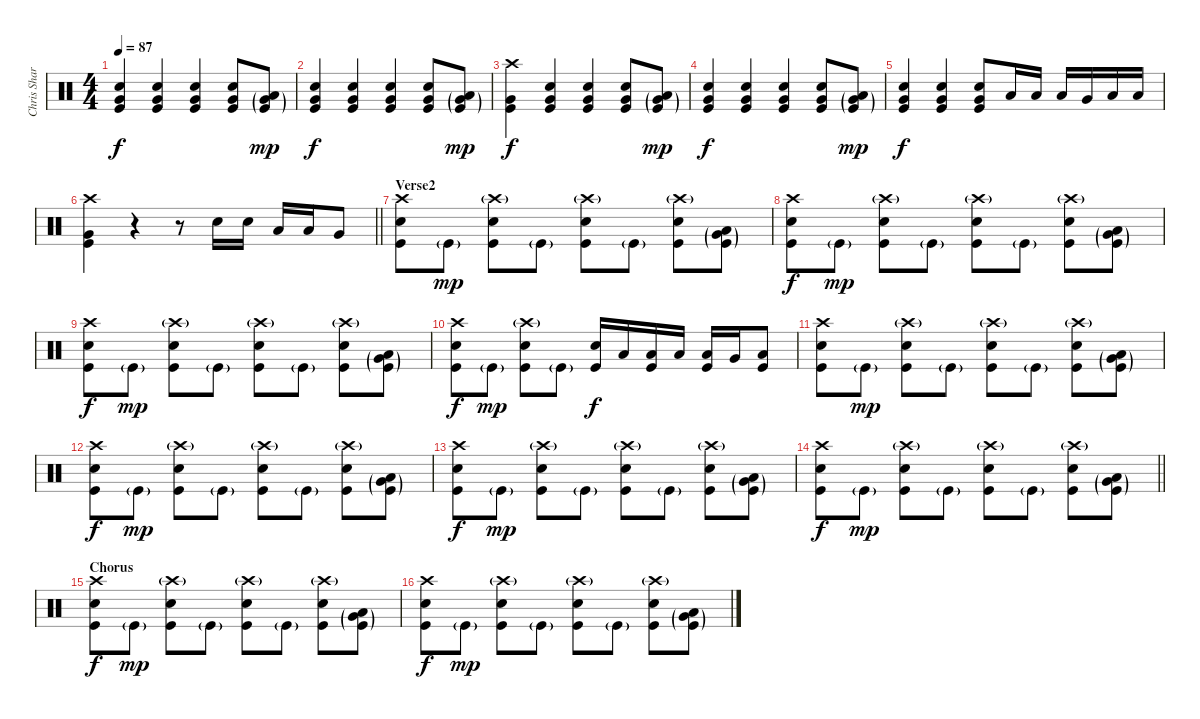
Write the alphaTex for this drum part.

\track ("Chris Sharrock" "Chris Shar") {instrument percussion}
\staff {score}
\articulation defaults
\ts (4 4)
\tempo 87
\clef neutral
\ks c
("Kick (hit)" "Very Low Tom (hit)" "Snare (hit) 2").4{dy f} ("Kick (hit)" "Very Low Tom (hit)" "Snare (hit) 2").4 ("Kick (hit)" "Very Low Tom (hit)" "Snare (hit) 2").4 ("Kick (hit)" "Very Low Tom (hit)" "Snare (hit) 2").8 ("Low Tom (hit)"{g} "Very Low Tom (hit)"{g} "Kick (hit)"{g}).8{dy mp} |
("Kick (hit)" "Very Low Tom (hit)" "Snare (hit) 2").4{dy f} ("Kick (hit)" "Very Low Tom (hit)" "Snare (hit) 2").4 ("Kick (hit)" "Very Low Tom (hit)" "Snare (hit) 2").4 ("Kick (hit)" "Very Low Tom (hit)" "Snare (hit) 2").8 ("Low Tom (hit)"{g} "Very Low Tom (hit)"{g} "Kick (hit)"{g}).8{dy mp} |
("Kick (hit)" "Crash high (hit)" "Very Low Tom (hit)").4{dy f} ("Kick (hit)" "Very Low Tom (hit)" "Snare (hit) 2").4 ("Kick (hit)" "Very Low Tom (hit)" "Snare (hit) 2").4 ("Kick (hit)" "Very Low Tom (hit)" "Snare (hit) 2").8 ("Low Tom (hit)"{g} "Very Low Tom (hit)"{g} "Kick (hit)"{g}).8{dy mp} |
("Kick (hit)" "Very Low Tom (hit)" "Snare (hit) 2").4{dy f} ("Kick (hit)" "Very Low Tom (hit)" "Snare (hit) 2").4 ("Kick (hit)" "Very Low Tom (hit)" "Snare (hit) 2").4 ("Kick (hit)" "Very Low Tom (hit)" "Snare (hit) 2").8 ("Low Tom (hit)"{g} "Very Low Tom (hit)"{g} "Kick (hit)"{g}).8{dy mp} |
("Kick (hit)" "Very Low Tom (hit)" "Snare (hit) 2").4{dy f} ("Kick (hit)" "Very Low Tom (hit)" "Snare (hit) 2").4 ("Kick (hit)" "Very Low Tom (hit)" "Snare (hit) 2").8 "Low Tom (hit)".16 "Low Tom (hit)".16 "Low Tom (hit)".16 "Very Low Tom (hit)".16 "Low Floor Tom (hit)".16 "Low Floor Tom (hit)".16 |
\barLineRight lightlight
("Kick (hit)" "Crash high (hit)" "Very Low Tom (hit)").4 r.4 r.8 "Snare (hit) 2".16 "Snare (hit) 2".16 "Low Tom (hit)".16 "Low Tom (hit)".16 "Very Low Tom (hit)".8 |
\section ("" "Verse2")
("Kick (hit)" "Snare (hit) 2" "Crash high (hit)").8 "Kick (hit)"{g}.8{dy mp} ("Kick (hit)" "Snare (hit) 2" "Crash high (hit)"{g}).8 "Kick (hit)"{g}.8 ("Kick (hit)" "Snare (hit) 2" "Crash high (hit)"{g}).8 "Kick (hit)"{g}.8 ("Kick (hit)" "Snare (hit) 2" "Crash high (hit)"{g}).8 ("Low Tom (hit)"{g} "Very Low Tom (hit)"{g} "Kick (hit)"{g}).8 |
("Kick (hit)" "Snare (hit) 2" "Crash high (hit)").8{dy f} "Kick (hit)"{g}.8{dy mp} ("Kick (hit)" "Snare (hit) 2" "Crash high (hit)"{g}).8 "Kick (hit)"{g}.8 ("Kick (hit)" "Snare (hit) 2" "Crash high (hit)"{g}).8 "Kick (hit)"{g}.8 ("Kick (hit)" "Snare (hit) 2" "Crash high (hit)"{g}).8 ("Low Tom (hit)"{g} "Very Low Tom (hit)"{g} "Kick (hit)"{g}).8 |
("Kick (hit)" "Snare (hit) 2" "Crash high (hit)").8{dy f} "Kick (hit)"{g}.8{dy mp} ("Kick (hit)" "Snare (hit) 2" "Crash high (hit)"{g}).8 "Kick (hit)"{g}.8 ("Kick (hit)" "Snare (hit) 2" "Crash high (hit)"{g}).8 "Kick (hit)"{g}.8 ("Kick (hit)" "Snare (hit) 2" "Crash high (hit)"{g}).8 ("Low Tom (hit)"{g} "Very Low Tom (hit)"{g} "Kick (hit)"{g}).8 |
("Kick (hit)" "Snare (hit) 2" "Crash high (hit)").8{dy f} "Kick (hit)"{g}.8{dy mp} ("Kick (hit)" "Snare (hit) 2" "Crash high (hit)"{g}).8 "Kick (hit)"{g}.8 ("Snare (hit) 2" "Kick (hit)").16{dy f} "Low Tom (hit)".16 ("Low Tom (hit)" "Kick (hit)").16 "Low Tom (hit)".16 ("Low Tom (hit)" "Kick (hit)").16 "Very Low Tom (hit)".16 ("Low Floor Tom (hit)" "Kick (hit)").8 |
("Kick (hit)" "Snare (hit) 2" "Crash high (hit)").8 "Kick (hit)"{g}.8{dy mp} ("Kick (hit)" "Snare (hit) 2" "Crash high (hit)"{g}).8 "Kick (hit)"{g}.8 ("Kick (hit)" "Snare (hit) 2" "Crash high (hit)"{g}).8 "Kick (hit)"{g}.8 ("Kick (hit)" "Snare (hit) 2" "Crash high (hit)"{g}).8 ("Low Tom (hit)"{g} "Very Low Tom (hit)"{g} "Kick (hit)"{g}).8 |
("Kick (hit)" "Snare (hit) 2" "Crash high (hit)").8{dy f} "Kick (hit)"{g}.8{dy mp} ("Kick (hit)" "Snare (hit) 2" "Crash high (hit)"{g}).8 "Kick (hit)"{g}.8 ("Kick (hit)" "Snare (hit) 2" "Crash high (hit)"{g}).8 "Kick (hit)"{g}.8 ("Kick (hit)" "Snare (hit) 2" "Crash high (hit)"{g}).8 ("Low Tom (hit)"{g} "Very Low Tom (hit)"{g} "Kick (hit)"{g}).8 |
("Kick (hit)" "Snare (hit) 2" "Crash high (hit)").8{dy f} "Kick (hit)"{g}.8{dy mp} ("Kick (hit)" "Snare (hit) 2" "Crash high (hit)"{g}).8 "Kick (hit)"{g}.8 ("Kick (hit)" "Snare (hit) 2" "Crash high (hit)"{g}).8 "Kick (hit)"{g}.8 ("Kick (hit)" "Snare (hit) 2" "Crash high (hit)"{g}).8 ("Low Tom (hit)"{g} "Very Low Tom (hit)"{g} "Kick (hit)"{g}).8 |
\barLineRight lightlight
("Kick (hit)" "Snare (hit) 2" "Crash high (hit)").8{dy f} "Kick (hit)"{g}.8{dy mp} ("Kick (hit)" "Snare (hit) 2" "Crash high (hit)"{g}).8 "Kick (hit)"{g}.8 ("Kick (hit)" "Snare (hit) 2" "Crash high (hit)"{g}).8 "Kick (hit)"{g}.8 ("Kick (hit)" "Snare (hit) 2" "Crash high (hit)"{g}).8 ("Low Tom (hit)"{g} "Very Low Tom (hit)"{g} "Kick (hit)"{g}).8 |
\section ("" "Chorus")
("Kick (hit)" "Snare (hit) 2" "Crash high (hit)").8{dy f} "Kick (hit)"{g}.8{dy mp} ("Kick (hit)" "Snare (hit) 2" "Crash high (hit)"{g}).8 "Kick (hit)"{g}.8 ("Kick (hit)" "Snare (hit) 2" "Crash high (hit)"{g}).8 "Kick (hit)"{g}.8 ("Kick (hit)" "Snare (hit) 2" "Crash high (hit)"{g}).8 ("Low Tom (hit)"{g} "Very Low Tom (hit)"{g} "Kick (hit)"{g}).8 |
("Kick (hit)" "Snare (hit) 2" "Crash high (hit)").8{dy f} "Kick (hit)"{g}.8{dy mp} ("Kick (hit)" "Snare (hit) 2" "Crash high (hit)"{g}).8 "Kick (hit)"{g}.8 ("Kick (hit)" "Snare (hit) 2" "Crash high (hit)"{g}).8 "Kick (hit)"{g}.8 ("Kick (hit)" "Snare (hit) 2" "Crash high (hit)"{g}).8 ("Low Tom (hit)"{g} "Very Low Tom (hit)"{g} "Kick (hit)"{g}).8
